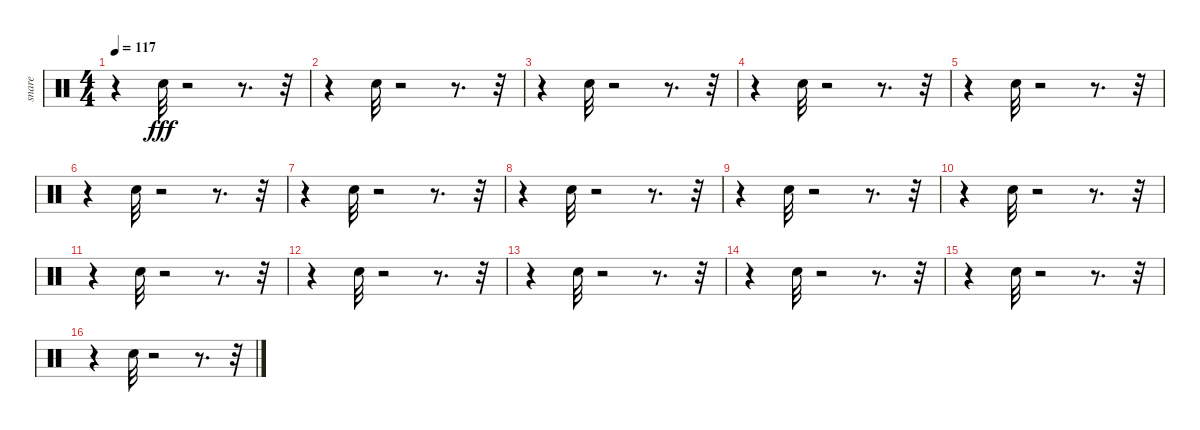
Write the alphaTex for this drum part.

\track ("snare" "snare") {instrument percussion}
\staff {score}
\articulation defaults
\ts (4 4)
\tempo 117
\clef neutral
\ks c
r.4{dy fff} "Snare (hit) 2".32 r.2 r.8{d} r.32 |
r.4 "Snare (hit) 2".32 r.2 r.8{d} r.32 |
r.4 "Snare (hit) 2".32 r.2 r.8{d} r.32 |
r.4 "Snare (hit) 2".32 r.2 r.8{d} r.32 |
r.4 "Snare (hit) 2".32 r.2 r.8{d} r.32 |
r.4 "Snare (hit) 2".32 r.2 r.8{d} r.32 |
r.4 "Snare (hit) 2".32 r.2 r.8{d} r.32 |
r.4 "Snare (hit) 2".32 r.2 r.8{d} r.32 |
r.4 "Snare (hit) 2".32 r.2 r.8{d} r.32 |
r.4 "Snare (hit) 2".32 r.2 r.8{d} r.32 |
r.4 "Snare (hit) 2".32 r.2 r.8{d} r.32 |
r.4 "Snare (hit) 2".32 r.2 r.8{d} r.32 |
r.4 "Snare (hit) 2".32 r.2 r.8{d} r.32 |
r.4 "Snare (hit) 2".32 r.2 r.8{d} r.32 |
r.4 "Snare (hit) 2".32 r.2 r.8{d} r.32 |
r.4 "Snare (hit) 2".32 r.2 r.8{d} r.32
